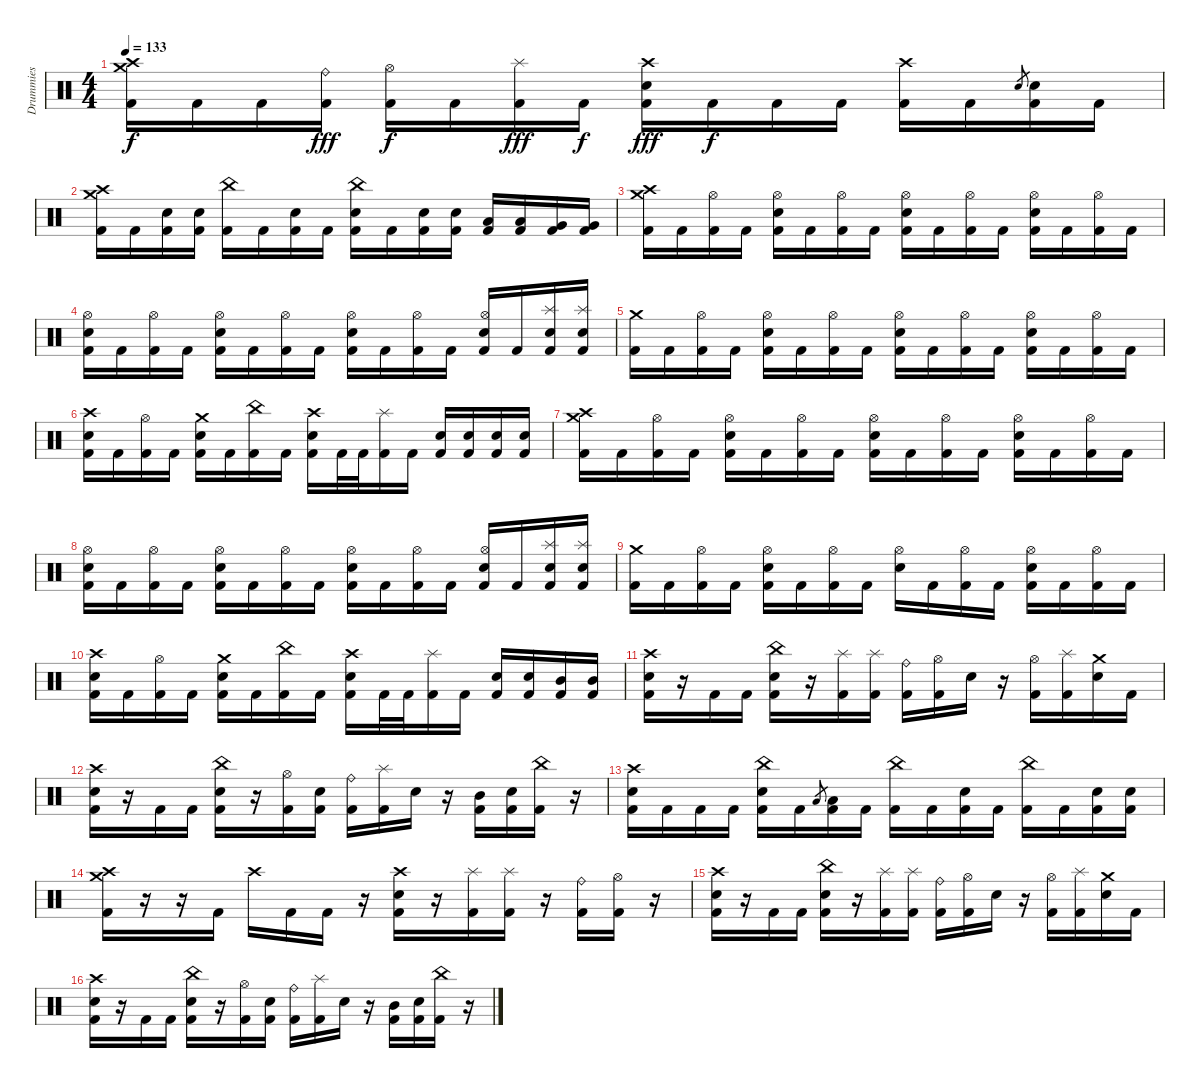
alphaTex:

\track ("Drummies" "Drummies") {instrument percussion}
\staff {score}
\articulation defaults
\ts (4 4)
\tempo 133
\clef neutral
\ks c
("Crash high (hit)" "Crash medium (hit)" "Kick (hit) 2").16{dy f} "Kick (hit) 2".16 "Kick (hit) 2".16 ("Ride (bell)" "Kick (hit) 2").16{dy fff} ("Hi-Hat (open)" "Kick (hit) 2").16{dy f} "Kick (hit) 2".16 ("Splash (hit)" "Kick (hit) 2").16{dy fff} "Kick (hit) 2".16{dy f} ("Crash high (hit)" "Electric Snare (hit)" "Kick (hit) 2").16{dy fff} "Kick (hit) 2".16{dy f} "Kick (hit) 2".16 "Kick (hit) 2".16 ("Crash high (hit)" "Kick (hit) 2").16 "Kick (hit) 2".16 "Electric Snare (hit)".8{gr} ("Electric Snare (hit)" "Kick (hit) 2").16 "Kick (hit) 2".16 |
("Crash medium (hit)" "Crash high (hit)" "Kick (hit) 2").16 "Kick (hit) 2".16 ("Electric Snare (hit)" "Kick (hit) 2").16 ("Electric Snare (hit)" "Kick (hit) 2").16 ("China (hit)" "Kick (hit) 2").16 "Kick (hit) 2".16 ("Electric Snare (hit)" "Kick (hit) 2").16 "Kick (hit) 2".16 ("China (hit)" "Electric Snare (hit)" "Kick (hit) 2").16 "Kick (hit) 2".16 ("Electric Snare (hit)" "Kick (hit) 2").16 ("Electric Snare (hit)" "Kick (hit) 2").16 ("Low Tom (hit)" "Kick (hit) 2").16 ("Low Tom (hit)" "Kick (hit) 2").16 ("Very Low Tom (hit)" "Kick (hit) 2").16 ("Very Low Tom (hit)" "Kick (hit) 2").16 |
("Crash high (hit)" "Crash medium (hit)" "Kick (hit) 2").16 "Kick (hit) 2".16 ("Hi-Hat (open)" "Kick (hit) 2").16 "Kick (hit) 2".16 ("Hi-Hat (open)" "Electric Snare (hit)" "Kick (hit) 2").16 "Kick (hit) 2".16 ("Hi-Hat (open)" "Kick (hit) 2").16 "Kick (hit) 2".16 ("Hi-Hat (open)" "Electric Snare (hit)" "Kick (hit) 2").16 "Kick (hit) 2".16 ("Hi-Hat (open)" "Kick (hit) 2").16 "Kick (hit) 2".16 ("Hi-Hat (open)" "Electric Snare (hit)" "Kick (hit) 2").16 "Kick (hit) 2".16 ("Hi-Hat (open)" "Kick (hit) 2").16 "Kick (hit) 2".16 |
("Hi-Hat (open)" "Electric Snare (hit)" "Kick (hit) 2").16 "Kick (hit) 2".16 ("Hi-Hat (open)" "Kick (hit) 2").16 "Kick (hit) 2".16 ("Hi-Hat (open)" "Electric Snare (hit)" "Kick (hit) 2").16 "Kick (hit) 2".16 ("Hi-Hat (open)" "Kick (hit) 2").16 "Kick (hit) 2".16 ("Hi-Hat (open)" "Electric Snare (hit)" "Kick (hit) 2").16 "Kick (hit) 2".16 ("Hi-Hat (open)" "Kick (hit) 2").16 "Kick (hit) 2".16 ("Hi-Hat (open)" "Electric Snare (hit)" "Kick (hit) 2").16 "Kick (hit) 2".16 ("Splash (hit)" "Electric Snare (hit)" "Kick (hit) 2").16 ("Splash (hit)" "Electric Snare (hit)" "Kick (hit) 2").16 |
("Crash medium (hit)" "Kick (hit) 2").16 "Kick (hit) 2".16 ("Hi-Hat (open)" "Kick (hit) 2").16 "Kick (hit) 2".16 ("Hi-Hat (open)" "Electric Snare (hit)" "Kick (hit) 2").16 "Kick (hit) 2".16 ("Hi-Hat (open)" "Kick (hit) 2").16 "Kick (hit) 2".16 ("Hi-Hat (open)" "Electric Snare (hit)" "Kick (hit) 2").16 "Kick (hit) 2".16 ("Hi-Hat (open)" "Kick (hit) 2").16 "Kick (hit) 2".16 ("Hi-Hat (open)" "Electric Snare (hit)" "Kick (hit) 2").16 "Kick (hit) 2".16 ("Hi-Hat (open)" "Kick (hit) 2").16 "Kick (hit) 2".16 |
("Crash high (hit)" "Electric Snare (hit)" "Kick (hit) 2").16 "Kick (hit) 2".16 ("Hi-Hat (open)" "Kick (hit) 2").16 "Kick (hit) 2".16 ("Crash medium (hit)" "Electric Snare (hit)" "Kick (hit) 2").16 "Kick (hit) 2".16 ("China (hit)" "Kick (hit) 2").16 "Kick (hit) 2".16 ("Crash high (hit)" "Electric Snare (hit)" "Kick (hit) 2").16 "Kick (hit) 2".32 "Kick (hit) 2".32 ("Splash (hit)" "Kick (hit) 2").16 "Kick (hit) 2".16 ("Electric Snare (hit)" "Kick (hit) 2").16 ("Electric Snare (hit)" "Kick (hit) 2").16 ("Electric Snare (hit)" "Kick (hit) 2").16 ("Electric Snare (hit)" "Kick (hit) 2").16 |
("Crash high (hit)" "Crash medium (hit)" "Kick (hit) 2").16 "Kick (hit) 2".16 ("Hi-Hat (open)" "Kick (hit) 2").16 "Kick (hit) 2".16 ("Hi-Hat (open)" "Electric Snare (hit)" "Kick (hit) 2").16 "Kick (hit) 2".16 ("Hi-Hat (open)" "Kick (hit) 2").16 "Kick (hit) 2".16 ("Hi-Hat (open)" "Electric Snare (hit)" "Kick (hit) 2").16 "Kick (hit) 2".16 ("Hi-Hat (open)" "Kick (hit) 2").16 "Kick (hit) 2".16 ("Hi-Hat (open)" "Electric Snare (hit)" "Kick (hit) 2").16 "Kick (hit) 2".16 ("Hi-Hat (open)" "Kick (hit) 2").16 "Kick (hit) 2".16 |
("Hi-Hat (open)" "Electric Snare (hit)" "Kick (hit) 2").16 "Kick (hit) 2".16 ("Hi-Hat (open)" "Kick (hit) 2").16 "Kick (hit) 2".16 ("Hi-Hat (open)" "Electric Snare (hit)" "Kick (hit) 2").16 "Kick (hit) 2".16 ("Hi-Hat (open)" "Kick (hit) 2").16 "Kick (hit) 2".16 ("Hi-Hat (open)" "Electric Snare (hit)" "Kick (hit) 2").16 "Kick (hit) 2".16 ("Hi-Hat (open)" "Kick (hit) 2").16 "Kick (hit) 2".16 ("Hi-Hat (open)" "Electric Snare (hit)" "Kick (hit) 2").16 "Kick (hit) 2".16 ("Splash (hit)" "Electric Snare (hit)" "Kick (hit) 2").16 ("Splash (hit)" "Electric Snare (hit)" "Kick (hit) 2").16 |
("Crash medium (hit)" "Kick (hit) 2").16 "Kick (hit) 2".16 ("Hi-Hat (open)" "Kick (hit) 2").16 "Kick (hit) 2".16 ("Hi-Hat (open)" "Electric Snare (hit)" "Kick (hit) 2").16 "Kick (hit) 2".16 ("Hi-Hat (open)" "Kick (hit) 2").16 "Kick (hit) 2".16 ("Hi-Hat (open)" "Electric Snare (hit)").16 "Kick (hit) 2".16 ("Hi-Hat (open)" "Kick (hit) 2").16 "Kick (hit) 2".16 ("Hi-Hat (open)" "Electric Snare (hit)" "Kick (hit) 2").16 "Kick (hit) 2".16 ("Hi-Hat (open)" "Kick (hit) 2").16 "Kick (hit) 2".16 |
("Crash high (hit)" "Electric Snare (hit)" "Kick (hit) 2").16 "Kick (hit) 2".16 ("Hi-Hat (open)" "Kick (hit) 2").16 "Kick (hit) 2".16 ("Crash medium (hit)" "Electric Snare (hit)" "Kick (hit) 2").16 "Kick (hit) 2".16 ("China (hit)" "Kick (hit) 2").16 "Kick (hit) 2".16 ("Crash high (hit)" "Electric Snare (hit)" "Kick (hit) 2").16 "Kick (hit) 2".32 "Kick (hit) 2".32 ("Splash (hit)" "Kick (hit) 2").16 "Kick (hit) 2".16 ("Electric Snare (hit)" "Kick (hit) 2").16 ("Electric Snare (hit)" "Kick (hit) 2").16 ("Mid Tom (hit)" "Kick (hit) 2").16 ("Mid Tom (hit)" "Kick (hit) 2").16 |
("Crash high (hit)" "Electric Snare (hit)" "Kick (hit) 2").16 r.16 "Kick (hit) 2".16 "Kick (hit) 2".16 ("China (hit)" "Electric Snare (hit)" "Kick (hit) 2").16 r.16 ("Splash (hit)" "Kick (hit) 2").16 ("Splash (hit)" "Kick (hit) 2").16 ("Ride (bell)" "Kick (hit) 2").16 ("Hi-Hat (open)" "Kick (hit) 2").16 "Electric Snare (hit)".16 r.16 ("Hi-Hat (open)" "Kick (hit) 2").16 ("Splash (hit)" "Kick (hit) 2").16 ("Crash medium (hit)" "Electric Snare (hit)").16 "Kick (hit) 2".16 |
("Crash high (hit)" "Electric Snare (hit)" "Kick (hit) 2").16 r.16 "Kick (hit) 2".16 "Kick (hit) 2".16 ("China (hit)" "Electric Snare (hit)" "Kick (hit) 2").16 r.16 ("Hi-Hat (open)" "Kick (hit) 2").16 ("Electric Snare (hit)" "Kick (hit) 2").16 ("Ride (bell)" "Kick (hit) 2").16 ("Splash (hit)" "Kick (hit) 2").16 "Electric Snare (hit)".16 r.16 ("Mid Tom (hit)" "Kick (hit) 2").16 ("Electric Snare (hit)" "Kick (hit) 2").16 ("China (hit)" "Kick (hit) 2").16 r.16 |
("Crash high (hit)" "Electric Snare (hit)" "Kick (hit) 2").16 "Kick (hit) 2".16 "Kick (hit) 2".16 "Kick (hit) 2".16 ("China (hit)" "Electric Snare (hit)" "Kick (hit) 2").16 "Kick (hit) 2".16 "Low Tom (hit)".8{gr} ("Low Tom (hit)" "Kick (hit) 2").16 "Kick (hit) 2".16 ("China (hit)" "Kick (hit) 2").16 "Kick (hit) 2".16 ("Electric Snare (hit)" "Kick (hit) 2").16 "Kick (hit) 2".16 ("China (hit)" "Kick (hit) 2").16 "Kick (hit) 2".16 ("Electric Snare (hit)" "Kick (hit) 2").16 ("Electric Snare (hit)" "Kick (hit) 2").16 |
("Crash medium (hit)" "Crash high (hit)" "Kick (hit) 2").16 r.16 r.16 "Kick (hit) 2".16 "Crash high (hit)".16 "Kick (hit) 2".16 "Kick (hit) 2".16 r.16 ("Crash high (hit)" "Electric Snare (hit)" "Kick (hit) 2").16 r.16 ("Splash (hit)" "Kick (hit) 2").16 ("Splash (hit)" "Kick (hit) 2").16 r.16 ("Ride (bell)" "Kick (hit) 2").16 ("Hi-Hat (open)" "Kick (hit) 2").16 r.16 |
("Crash high (hit)" "Electric Snare (hit)" "Kick (hit) 2").16 r.16 "Kick (hit) 2".16 "Kick (hit) 2".16 ("China (hit)" "Electric Snare (hit)" "Kick (hit) 2").16 r.16 ("Splash (hit)" "Kick (hit) 2").16 ("Splash (hit)" "Kick (hit) 2").16 ("Ride (bell)" "Kick (hit) 2").16 ("Hi-Hat (open)" "Kick (hit) 2").16 "Electric Snare (hit)".16 r.16 ("Hi-Hat (open)" "Kick (hit) 2").16 ("Splash (hit)" "Kick (hit) 2").16 ("Crash medium (hit)" "Electric Snare (hit)").16 "Kick (hit) 2".16 |
("Crash high (hit)" "Electric Snare (hit)" "Kick (hit) 2").16 r.16 "Kick (hit) 2".16 "Kick (hit) 2".16 ("China (hit)" "Electric Snare (hit)" "Kick (hit) 2").16 r.16 ("Hi-Hat (open)" "Kick (hit) 2").16 ("Electric Snare (hit)" "Kick (hit) 2").16 ("Ride (bell)" "Kick (hit) 2").16 ("Splash (hit)" "Kick (hit) 2").16 "Electric Snare (hit)".16 r.16 ("Mid Tom (hit)" "Kick (hit) 2").16 ("Electric Snare (hit)" "Kick (hit) 2").16 ("China (hit)" "Kick (hit) 2").16 r.16
